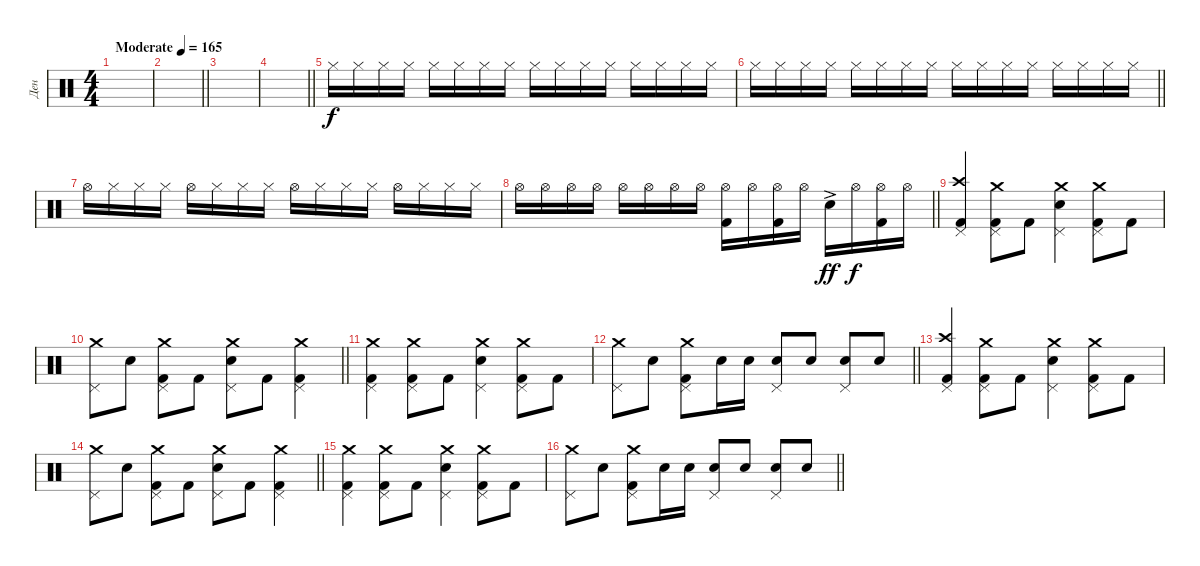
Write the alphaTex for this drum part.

\track ("Ден" "Ден") {instrument percussion}
\staff {score}
\articulation defaults
\ts (4 4)
\tempo (165 "Moderate")
\clef neutral
\ks c
|
\barLineRight lightlight
|
|
\barLineRight lightlight
|
"Hi-Hat (closed)".16 "Hi-Hat (closed)".16 "Hi-Hat (closed)".16 "Hi-Hat (closed)".16 "Hi-Hat (closed)".16 "Hi-Hat (closed)".16 "Hi-Hat (closed)".16 "Hi-Hat (closed)".16 "Hi-Hat (closed)".16 "Hi-Hat (closed)".16 "Hi-Hat (closed)".16 "Hi-Hat (closed)".16 "Hi-Hat (closed)".16 "Hi-Hat (closed)".16 "Hi-Hat (closed)".16 "Hi-Hat (closed)".16 |
\barLineRight lightlight "Hi-Hat (closed)".16 "Hi-Hat (closed)".16 "Hi-Hat (closed)".16 "Hi-Hat (closed)".16 "Hi-Hat (closed)".16 "Hi-Hat (closed)".16 "Hi-Hat (closed)".16 "Hi-Hat (closed)".16 "Hi-Hat (closed)".16 "Hi-Hat (closed)".16 "Hi-Hat (closed)".16 "Hi-Hat (closed)".16 "Hi-Hat (closed)".16 "Hi-Hat (closed)".16 "Hi-Hat (closed)".16 "Hi-Hat (closed)".16
|
"Hi-Hat (open)".16 "Hi-Hat (closed)".16 "Hi-Hat (closed)".16 "Hi-Hat (closed)".16 "Hi-Hat (open)".16 "Hi-Hat (closed)".16 "Hi-Hat (closed)".16 "Hi-Hat (closed)".16 "Hi-Hat (open)".16 "Hi-Hat (closed)".16 "Hi-Hat (closed)".16 "Hi-Hat (closed)".16 "Hi-Hat (open)".16 "Hi-Hat (closed)".16 "Hi-Hat (closed)".16 "Hi-Hat (closed)".16 |
\barLineRight lightlight "Hi-Hat (open)".16 "Hi-Hat (open)".16 "Hi-Hat (open)".16 "Hi-Hat (open)".16 "Hi-Hat (open)".16 "Hi-Hat (open)".16 "Hi-Hat (open)".16 "Hi-Hat (open)".16
("Hi-Hat (open)" "Kick (hit) 2").16 "Hi-Hat (open)".16 ("Hi-Hat (open)" "Kick (hit) 2").16 "Hi-Hat (open)".16 "Snare (hit) 2"{ac}.16{dy ff} "Hi-Hat (open)".16{dy f} ("Hi-Hat (open)" "Kick (hit) 2").16 "Hi-Hat (open)".16 |
("Crash high (hit)" "Kick (hit) 2" "Pedal Hi-Hat (hit)").4 ("Crash medium (hit)" "Kick (hit) 2" "Pedal Hi-Hat (hit)").8 "Kick (hit) 2".8 ("Crash medium (hit)" "Snare (hit) 2" "Pedal Hi-Hat (hit)").4 ("Crash medium (hit)" "Kick (hit) 2" "Pedal Hi-Hat (hit)").8 "Kick (hit) 2".8 |
\barLineRight lightlight
("Crash medium (hit)" "Pedal Hi-Hat (hit)").8 "Snare (hit) 2".8 ("Crash medium (hit)" "Kick (hit) 2" "Pedal Hi-Hat (hit)").8 "Kick (hit) 2".8 ("Crash medium (hit)" "Snare (hit) 2" "Pedal Hi-Hat (hit)").8 "Kick (hit) 2".8 ("Crash medium (hit)" "Kick (hit) 2" "Pedal Hi-Hat (hit)").4 |
("Crash medium (hit)" "Kick (hit) 2" "Pedal Hi-Hat (hit)").4 ("Crash medium (hit)" "Kick (hit) 2" "Pedal Hi-Hat (hit)").8 "Kick (hit) 2".8 ("Crash medium (hit)" "Snare (hit) 2" "Pedal Hi-Hat (hit)").4 ("Crash medium (hit)" "Kick (hit) 2" "Pedal Hi-Hat (hit)").8 "Kick (hit) 2".8 |
\barLineRight lightlight
("Crash medium (hit)" "Pedal Hi-Hat (hit)").8 "Snare (hit) 2".8 ("Crash medium (hit)" "Kick (hit) 2" "Pedal Hi-Hat (hit)").8 "Snare (hit) 2".16 "Snare (hit) 2".16 ("Snare (hit) 2" "Pedal Hi-Hat (hit)").8 "Snare (hit) 2".8 ("Snare (hit) 2" "Pedal Hi-Hat (hit)").8 "Snare (hit) 2".8 |
("Crash high (hit)" "Kick (hit) 2" "Pedal Hi-Hat (hit)").4 ("Crash medium (hit)" "Kick (hit) 2" "Pedal Hi-Hat (hit)").8 "Kick (hit) 2".8 ("Crash medium (hit)" "Snare (hit) 2" "Pedal Hi-Hat (hit)").4 ("Crash medium (hit)" "Kick (hit) 2" "Pedal Hi-Hat (hit)").8 "Kick (hit) 2".8 |
\barLineRight lightlight
("Crash medium (hit)" "Pedal Hi-Hat (hit)").8 "Snare (hit) 2".8 ("Crash medium (hit)" "Kick (hit) 2" "Pedal Hi-Hat (hit)").8 "Kick (hit) 2".8 ("Crash medium (hit)" "Snare (hit) 2" "Pedal Hi-Hat (hit)").8 "Kick (hit) 2".8 ("Crash medium (hit)" "Kick (hit) 2" "Pedal Hi-Hat (hit)").4 |
("Crash medium (hit)" "Kick (hit) 2" "Pedal Hi-Hat (hit)").4 ("Crash medium (hit)" "Kick (hit) 2" "Pedal Hi-Hat (hit)").8 "Kick (hit) 2".8 ("Crash medium (hit)" "Snare (hit) 2" "Pedal Hi-Hat (hit)").4 ("Crash medium (hit)" "Kick (hit) 2" "Pedal Hi-Hat (hit)").8 "Kick (hit) 2".8 |
\barLineRight lightlight
("Crash medium (hit)" "Pedal Hi-Hat (hit)").8 "Snare (hit) 2".8 ("Crash medium (hit)" "Kick (hit) 2" "Pedal Hi-Hat (hit)").8 "Snare (hit) 2".16 "Snare (hit) 2".16 ("Snare (hit) 2" "Pedal Hi-Hat (hit)").8 "Snare (hit) 2".8 ("Snare (hit) 2" "Pedal Hi-Hat (hit)").8 "Snare (hit) 2".8
